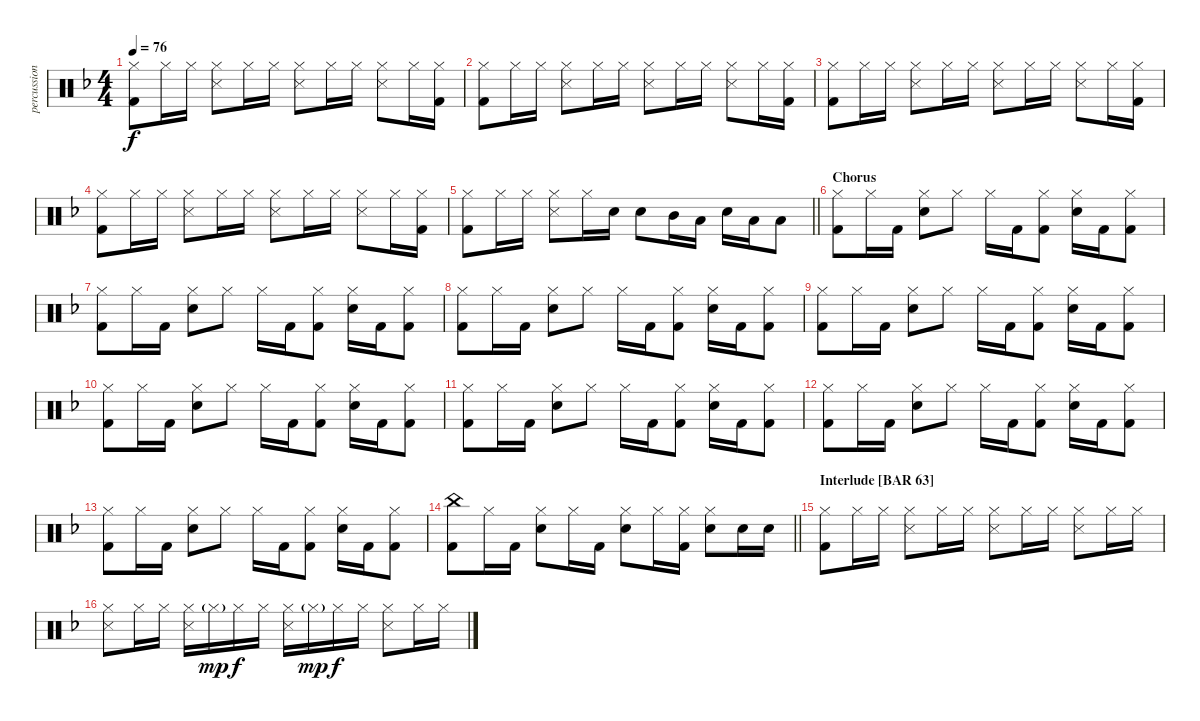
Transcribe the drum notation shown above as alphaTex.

\track ("percussion" "percussion") {instrument percussion}
\staff {score}
\articulation defaults
\ts (4 4)
\tempo 76
\clef neutral
\ks f
("Hi-Hat (closed)" "Kick (hit) 2").8{dy f} "Hi-Hat (closed)".16 "Hi-Hat (closed)".16 ("Snare (side stick) 3" "Hi-Hat (closed)").8 "Hi-Hat (closed)".16 "Hi-Hat (closed)".16 ("Snare (side stick) 3" "Hi-Hat (closed)").8 "Hi-Hat (closed)".16 "Hi-Hat (closed)".16 ("Snare (side stick) 3" "Hi-Hat (closed)").8 "Hi-Hat (closed)".16 ("Hi-Hat (closed)" "Kick (hit) 2").16 |
("Hi-Hat (closed)" "Kick (hit) 2").8 "Hi-Hat (closed)".16 "Hi-Hat (closed)".16 ("Snare (side stick) 3" "Hi-Hat (closed)").8 "Hi-Hat (closed)".16 "Hi-Hat (closed)".16 ("Snare (side stick) 3" "Hi-Hat (closed)").8 "Hi-Hat (closed)".16 "Hi-Hat (closed)".16 ("Snare (side stick) 3" "Hi-Hat (closed)").8 "Hi-Hat (closed)".16 ("Hi-Hat (closed)" "Kick (hit) 2").16 |
("Hi-Hat (closed)" "Kick (hit) 2").8 "Hi-Hat (closed)".16 "Hi-Hat (closed)".16 ("Snare (side stick) 3" "Hi-Hat (closed)").8 "Hi-Hat (closed)".16 "Hi-Hat (closed)".16 ("Snare (side stick) 3" "Hi-Hat (closed)").8 "Hi-Hat (closed)".16 "Hi-Hat (closed)".16 ("Snare (side stick) 3" "Hi-Hat (closed)").8 "Hi-Hat (closed)".16 ("Hi-Hat (closed)" "Kick (hit) 2").16 |
("Hi-Hat (closed)" "Kick (hit) 2").8 "Hi-Hat (closed)".16 "Hi-Hat (closed)".16 ("Snare (side stick) 3" "Hi-Hat (closed)").8 "Hi-Hat (closed)".16 "Hi-Hat (closed)".16 ("Snare (side stick) 3" "Hi-Hat (closed)").8 "Hi-Hat (closed)".16 "Hi-Hat (closed)".16 ("Snare (side stick) 3" "Hi-Hat (closed)").8 "Hi-Hat (closed)".16 ("Hi-Hat (closed)" "Kick (hit) 2").16 |
\barLineRight lightlight
("Hi-Hat (closed)" "Kick (hit) 2").8 "Hi-Hat (closed)".16 "Hi-Hat (closed)".16 ("Snare (side stick) 3" "Hi-Hat (closed)").8 "Hi-Hat (closed)".16 "Electric Snare (hit)".16 "Electric Snare (hit)".8 "Mid Tom (hit)".16 "Low Tom (hit)".16 "Electric Snare (hit)".16 "Low Tom (hit)".16 "Low Tom (hit)".8 |
\section ("" "Chorus")
("Hi-Hat (closed)" "Kick (hit) 2").8 "Hi-Hat (closed)".16 "Kick (hit) 2".16 ("Electric Snare (hit)" "Hi-Hat (closed)").8 "Hi-Hat (closed)".8 "Hi-Hat (closed)".16 "Kick (hit) 2".16 ("Hi-Hat (closed)" "Kick (hit) 2").8 ("Electric Snare (hit)" "Hi-Hat (closed)").16 "Kick (hit) 2".16 ("Hi-Hat (closed)" "Kick (hit) 2").8 |
("Hi-Hat (closed)" "Kick (hit) 2").8 "Hi-Hat (closed)".16 "Kick (hit) 2".16 ("Electric Snare (hit)" "Hi-Hat (closed)").8 "Hi-Hat (closed)".8 "Hi-Hat (closed)".16 "Kick (hit) 2".16 ("Hi-Hat (closed)" "Kick (hit) 2").8 ("Electric Snare (hit)" "Hi-Hat (closed)").16 "Kick (hit) 2".16 ("Hi-Hat (closed)" "Kick (hit) 2").8 |
("Hi-Hat (closed)" "Kick (hit) 2").8 "Hi-Hat (closed)".16 "Kick (hit) 2".16 ("Electric Snare (hit)" "Hi-Hat (closed)").8 "Hi-Hat (closed)".8 "Hi-Hat (closed)".16 "Kick (hit) 2".16 ("Hi-Hat (closed)" "Kick (hit) 2").8 ("Electric Snare (hit)" "Hi-Hat (closed)").16 "Kick (hit) 2".16 ("Hi-Hat (closed)" "Kick (hit) 2").8 |
("Hi-Hat (closed)" "Kick (hit) 2").8 "Hi-Hat (closed)".16 "Kick (hit) 2".16 ("Electric Snare (hit)" "Hi-Hat (closed)").8 "Hi-Hat (closed)".8 "Hi-Hat (closed)".16 "Kick (hit) 2".16 ("Hi-Hat (closed)" "Kick (hit) 2").8 ("Electric Snare (hit)" "Hi-Hat (closed)").16 "Kick (hit) 2".16 ("Hi-Hat (closed)" "Kick (hit) 2").8 |
("Hi-Hat (closed)" "Kick (hit) 2").8 "Hi-Hat (closed)".16 "Kick (hit) 2".16 ("Electric Snare (hit)" "Hi-Hat (closed)").8 "Hi-Hat (closed)".8 "Hi-Hat (closed)".16 "Kick (hit) 2".16 ("Hi-Hat (closed)" "Kick (hit) 2").8 ("Electric Snare (hit)" "Hi-Hat (closed)").16 "Kick (hit) 2".16 ("Hi-Hat (closed)" "Kick (hit) 2").8 |
("Hi-Hat (closed)" "Kick (hit) 2").8 "Hi-Hat (closed)".16 "Kick (hit) 2".16 ("Electric Snare (hit)" "Hi-Hat (closed)").8 "Hi-Hat (closed)".8 "Hi-Hat (closed)".16 "Kick (hit) 2".16 ("Hi-Hat (closed)" "Kick (hit) 2").8 ("Electric Snare (hit)" "Hi-Hat (closed)").16 "Kick (hit) 2".16 ("Hi-Hat (closed)" "Kick (hit) 2").8 |
("Hi-Hat (closed)" "Kick (hit) 2").8 "Hi-Hat (closed)".16 "Kick (hit) 2".16 ("Electric Snare (hit)" "Hi-Hat (closed)").8 "Hi-Hat (closed)".8 "Hi-Hat (closed)".16 "Kick (hit) 2".16 ("Hi-Hat (closed)" "Kick (hit) 2").8 ("Electric Snare (hit)" "Hi-Hat (closed)").16 "Kick (hit) 2".16 ("Hi-Hat (closed)" "Kick (hit) 2").8 |
("Hi-Hat (closed)" "Kick (hit) 2").8 "Hi-Hat (closed)".16 "Kick (hit) 2".16 ("Electric Snare (hit)" "Hi-Hat (closed)").8 "Hi-Hat (closed)".8 "Hi-Hat (closed)".16 "Kick (hit) 2".16 ("Hi-Hat (closed)" "Kick (hit) 2").8 ("Electric Snare (hit)" "Hi-Hat (closed)").16 "Kick (hit) 2".16 ("Hi-Hat (closed)" "Kick (hit) 2").8 |
\barLineRight lightlight
("China (hit)" "Kick (hit) 2").8 "Hi-Hat (closed)".16 "Kick (hit) 2".16 ("Electric Snare (hit)" "Hi-Hat (closed)").8 "Hi-Hat (closed)".16 "Kick (hit) 2".16 ("Electric Snare (hit)" "Hi-Hat (closed)").8 "Hi-Hat (closed)".16 ("Hi-Hat (closed)" "Kick (hit) 2").16 ("Electric Snare (hit)" "Hi-Hat (closed)").8 "Electric Snare (hit)".16 "Electric Snare (hit)".16 |
\section ("" "Interlude [BAR 63]")
("Hi-Hat (closed)" "Kick (hit) 2").8 "Hi-Hat (closed)".16 "Hi-Hat (closed)".16 ("Snare (side stick) 3" "Hi-Hat (closed)").8 "Hi-Hat (closed)".16 "Hi-Hat (closed)".16 ("Snare (side stick) 3" "Hi-Hat (closed)").8 "Hi-Hat (closed)".16 "Hi-Hat (closed)".16 ("Snare (side stick) 3" "Hi-Hat (closed)").8 "Hi-Hat (closed)".16 "Hi-Hat (closed)".16 |
("Snare (side stick) 3" "Hi-Hat (closed)").8 "Hi-Hat (closed)".16 "Hi-Hat (closed)".16 ("Snare (side stick) 3" "Hi-Hat (closed)").16 "Hi-Hat (closed)"{g}.16{dy mp} "Hi-Hat (closed)".16{dy f} "Hi-Hat (closed)".16 ("Snare (side stick) 3" "Hi-Hat (closed)").16 "Hi-Hat (closed)"{g}.16{dy mp} "Hi-Hat (closed)".16{dy f} "Hi-Hat (closed)".16 ("Snare (side stick) 3" "Hi-Hat (closed)").8 "Hi-Hat (closed)".16 "Hi-Hat (closed)".16
